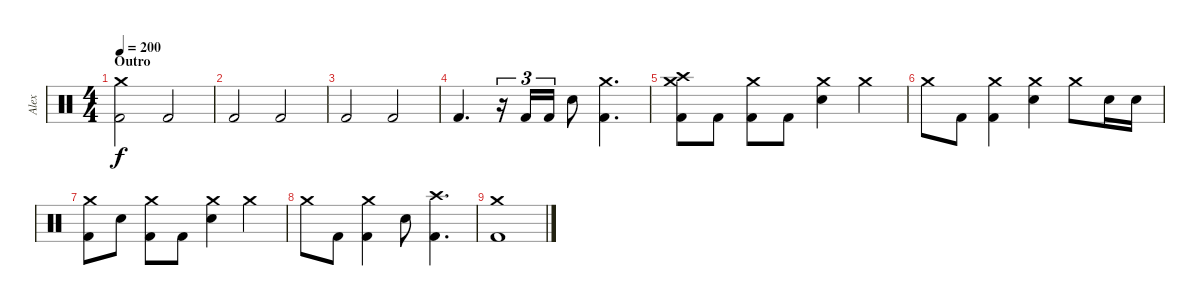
\track ("Alex" "Alex") {instrument percussion}
\staff {score}
\articulation defaults
\ts (4 4)
\section ("" "Outro")
\tempo 200
\clef neutral
\ks c
("Crash medium (hit)" "Kick (hit) 2").2{dy f} "Kick (hit) 2".2 |
"Kick (hit) 2".2 "Kick (hit) 2".2 |
"Kick (hit) 2".2 "Kick (hit) 2".2 |
"Kick (hit) 2".4{d} r.16{tu (3 2)} "Kick (hit) 2".16{tu (3 2)} "Kick (hit) 2".16{tu (3 2)} "Electric Snare (hit)".8 ("Crash medium (hit)" "Kick (hit) 2").4{d} |
("Crash medium (hit)" "Crash high (hit)" "Kick (hit) 2").8 "Kick (hit) 2".8 ("Crash medium (hit)" "Kick (hit) 2").8 "Kick (hit) 2".8 ("Crash medium (hit)" "Electric Snare (hit)").4 "Crash medium (hit)".4 |
"Crash medium (hit)".8 "Kick (hit) 2".8 ("Crash medium (hit)" "Kick (hit) 2").4 ("Crash medium (hit)" "Electric Snare (hit)").4 "Crash medium (hit)".8 "Electric Snare (hit)".16 "Electric Snare (hit)".16 |
("Crash medium (hit)" "Kick (hit) 2").8 "Electric Snare (hit)".8 ("Crash medium (hit)" "Kick (hit) 2").8 "Kick (hit) 2".8 ("Crash medium (hit)" "Electric Snare (hit)").4 "Crash medium (hit)".4 |
"Crash medium (hit)".8 "Kick (hit) 2".8 ("Crash medium (hit)" "Kick (hit) 2").4 "Electric Snare (hit)".8 ("Crash high (hit)" "Kick (hit) 2").4{d} |
("Crash medium (hit)" "Kick (hit) 2").1
